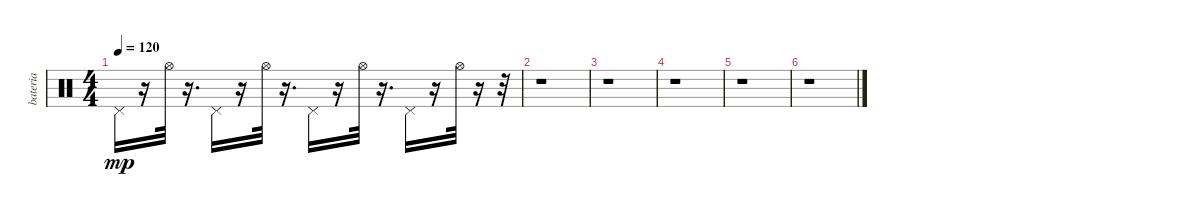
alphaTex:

\track ("bateria" "bateria") {instrument percussion}
\staff {score}
\articulation defaults
\ts (4 4)
\tempo 120
\clef neutral
\ks c "Pedal Hi-Hat (hit)".16{dy mp}
r.16 "Hi-Hat (open)".32 r.16{d} "Pedal Hi-Hat (hit)".16 r.16 "Hi-Hat (open)".32 r.16{d} "Pedal Hi-Hat (hit)".16 r.16 "Hi-Hat (open)".32 r.16{d} "Pedal Hi-Hat (hit)".16 r.16 "Hi-Hat (open)".32 r.16 r.32 |
r.1 |
r.1 |
r.1 |
r.1 |
r.1
